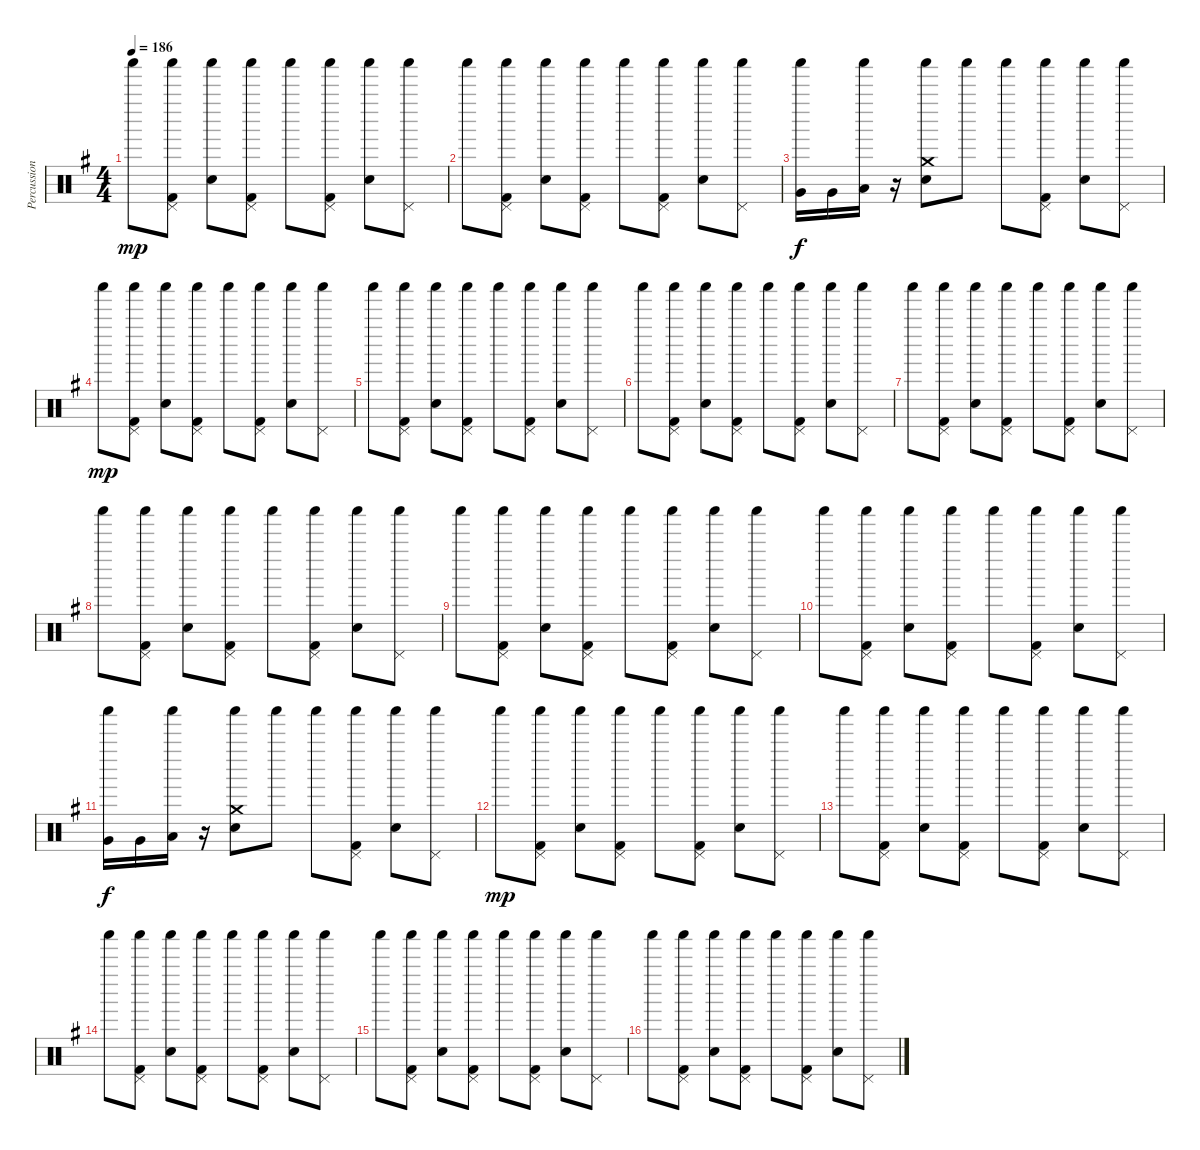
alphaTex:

\track ("Percussion" "Percussion") {instrument percussion}
\staff {score}
\articulation defaults
\ts (4 4)
\tempo 186
\clef neutral
\ks g "Shaker (hit)".8{dy mp}
("Shaker (hit)" "Pedal Hi-Hat (hit)" "Kick (hit) 2").8 ("Shaker (hit)" "Electric Snare (hit)").8 ("Shaker (hit)" "Pedal Hi-Hat (hit)" "Kick (hit) 2").8 "Shaker (hit)".8 ("Shaker (hit)" "Pedal Hi-Hat (hit)" "Kick (hit) 2").8 ("Shaker (hit)" "Electric Snare (hit)").8 ("Shaker (hit)" "Pedal Hi-Hat (hit)").8 |
"Shaker (hit)".8 ("Shaker (hit)" "Pedal Hi-Hat (hit)" "Kick (hit) 2").8 ("Shaker (hit)" "Electric Snare (hit)").8 ("Shaker (hit)" "Pedal Hi-Hat (hit)" "Kick (hit) 2").8 "Shaker (hit)".8 ("Shaker (hit)" "Pedal Hi-Hat (hit)" "Kick (hit) 2").8 ("Shaker (hit)" "Electric Snare (hit)").8 ("Shaker (hit)" "Pedal Hi-Hat (hit)").8 |
("Shaker (hit)" "Very Low Tom (hit)").16{dy f} "Very Low Tom (hit)".16 ("Shaker (hit)" "Low Floor Tom (hit)").16 r.16 ("Shaker (hit)" "Crash medium (hit)" "Electric Snare (hit)").8 "Shaker (hit)".8 "Shaker (hit)".8 ("Shaker (hit)" "Pedal Hi-Hat (hit)" "Kick (hit) 2").8 ("Shaker (hit)" "Electric Snare (hit)").8 ("Shaker (hit)" "Pedal Hi-Hat (hit)").8 |
"Shaker (hit)".8{dy mp} ("Shaker (hit)" "Pedal Hi-Hat (hit)" "Kick (hit) 2").8 ("Shaker (hit)" "Electric Snare (hit)").8 ("Shaker (hit)" "Pedal Hi-Hat (hit)" "Kick (hit) 2").8 "Shaker (hit)".8 ("Shaker (hit)" "Pedal Hi-Hat (hit)" "Kick (hit) 2").8 ("Shaker (hit)" "Electric Snare (hit)").8 ("Shaker (hit)" "Pedal Hi-Hat (hit)").8 |
"Shaker (hit)".8 ("Shaker (hit)" "Pedal Hi-Hat (hit)" "Kick (hit) 2").8 ("Shaker (hit)" "Electric Snare (hit)").8 ("Shaker (hit)" "Pedal Hi-Hat (hit)" "Kick (hit) 2").8 "Shaker (hit)".8 ("Shaker (hit)" "Pedal Hi-Hat (hit)" "Kick (hit) 2").8 ("Shaker (hit)" "Electric Snare (hit)").8 ("Shaker (hit)" "Pedal Hi-Hat (hit)").8 |
"Shaker (hit)".8 ("Shaker (hit)" "Pedal Hi-Hat (hit)" "Kick (hit) 2").8 ("Shaker (hit)" "Electric Snare (hit)").8 ("Shaker (hit)" "Pedal Hi-Hat (hit)" "Kick (hit) 2").8 "Shaker (hit)".8 ("Shaker (hit)" "Pedal Hi-Hat (hit)" "Kick (hit) 2").8 ("Shaker (hit)" "Electric Snare (hit)").8 ("Shaker (hit)" "Pedal Hi-Hat (hit)").8 |
"Shaker (hit)".8 ("Shaker (hit)" "Pedal Hi-Hat (hit)" "Kick (hit) 2").8 ("Shaker (hit)" "Electric Snare (hit)").8 ("Shaker (hit)" "Pedal Hi-Hat (hit)" "Kick (hit) 2").8 "Shaker (hit)".8 ("Shaker (hit)" "Pedal Hi-Hat (hit)" "Kick (hit) 2").8 ("Shaker (hit)" "Electric Snare (hit)").8 ("Shaker (hit)" "Pedal Hi-Hat (hit)").8 |
"Shaker (hit)".8 ("Shaker (hit)" "Pedal Hi-Hat (hit)" "Kick (hit) 2").8 ("Shaker (hit)" "Electric Snare (hit)").8 ("Shaker (hit)" "Pedal Hi-Hat (hit)" "Kick (hit) 2").8 "Shaker (hit)".8 ("Shaker (hit)" "Pedal Hi-Hat (hit)" "Kick (hit) 2").8 ("Shaker (hit)" "Electric Snare (hit)").8 ("Shaker (hit)" "Pedal Hi-Hat (hit)").8 |
"Shaker (hit)".8 ("Shaker (hit)" "Pedal Hi-Hat (hit)" "Kick (hit) 2").8 ("Shaker (hit)" "Electric Snare (hit)").8 ("Shaker (hit)" "Pedal Hi-Hat (hit)" "Kick (hit) 2").8 "Shaker (hit)".8 ("Shaker (hit)" "Pedal Hi-Hat (hit)" "Kick (hit) 2").8 ("Shaker (hit)" "Electric Snare (hit)").8 ("Shaker (hit)" "Pedal Hi-Hat (hit)").8 |
"Shaker (hit)".8 ("Shaker (hit)" "Pedal Hi-Hat (hit)" "Kick (hit) 2").8 ("Shaker (hit)" "Electric Snare (hit)").8 ("Shaker (hit)" "Pedal Hi-Hat (hit)" "Kick (hit) 2").8 "Shaker (hit)".8 ("Shaker (hit)" "Pedal Hi-Hat (hit)" "Kick (hit) 2").8 ("Shaker (hit)" "Electric Snare (hit)").8 ("Shaker (hit)" "Pedal Hi-Hat (hit)").8 |
("Shaker (hit)" "Very Low Tom (hit)").16{dy f} "Very Low Tom (hit)".16 ("Shaker (hit)" "Low Floor Tom (hit)").16 r.16 ("Shaker (hit)" "Crash medium (hit)" "Electric Snare (hit)").8 "Shaker (hit)".8 "Shaker (hit)".8 ("Shaker (hit)" "Pedal Hi-Hat (hit)" "Kick (hit) 2").8 ("Shaker (hit)" "Electric Snare (hit)").8 ("Shaker (hit)" "Pedal Hi-Hat (hit)").8 |
"Shaker (hit)".8{dy mp} ("Shaker (hit)" "Pedal Hi-Hat (hit)" "Kick (hit) 2").8 ("Shaker (hit)" "Electric Snare (hit)").8 ("Shaker (hit)" "Pedal Hi-Hat (hit)" "Kick (hit) 2").8 "Shaker (hit)".8 ("Shaker (hit)" "Pedal Hi-Hat (hit)" "Kick (hit) 2").8 ("Shaker (hit)" "Electric Snare (hit)").8 ("Shaker (hit)" "Pedal Hi-Hat (hit)").8 |
"Shaker (hit)".8 ("Shaker (hit)" "Pedal Hi-Hat (hit)" "Kick (hit) 2").8 ("Shaker (hit)" "Electric Snare (hit)").8 ("Shaker (hit)" "Pedal Hi-Hat (hit)" "Kick (hit) 2").8 "Shaker (hit)".8 ("Shaker (hit)" "Pedal Hi-Hat (hit)" "Kick (hit) 2").8 ("Shaker (hit)" "Electric Snare (hit)").8 ("Shaker (hit)" "Pedal Hi-Hat (hit)").8 |
"Shaker (hit)".8 ("Shaker (hit)" "Pedal Hi-Hat (hit)" "Kick (hit) 2").8 ("Shaker (hit)" "Electric Snare (hit)").8 ("Shaker (hit)" "Pedal Hi-Hat (hit)" "Kick (hit) 2").8 "Shaker (hit)".8 ("Shaker (hit)" "Pedal Hi-Hat (hit)" "Kick (hit) 2").8 ("Shaker (hit)" "Electric Snare (hit)").8 ("Shaker (hit)" "Pedal Hi-Hat (hit)").8 |
"Shaker (hit)".8 ("Shaker (hit)" "Pedal Hi-Hat (hit)" "Kick (hit) 2").8 ("Shaker (hit)" "Electric Snare (hit)").8 ("Shaker (hit)" "Pedal Hi-Hat (hit)" "Kick (hit) 2").8 "Shaker (hit)".8 ("Shaker (hit)" "Pedal Hi-Hat (hit)" "Kick (hit) 2").8 ("Shaker (hit)" "Electric Snare (hit)").8 ("Shaker (hit)" "Pedal Hi-Hat (hit)").8 |
"Shaker (hit)".8 ("Shaker (hit)" "Pedal Hi-Hat (hit)" "Kick (hit) 2").8 ("Shaker (hit)" "Electric Snare (hit)").8 ("Shaker (hit)" "Pedal Hi-Hat (hit)" "Kick (hit) 2").8 "Shaker (hit)".8 ("Shaker (hit)" "Pedal Hi-Hat (hit)" "Kick (hit) 2").8 ("Shaker (hit)" "Electric Snare (hit)").8 ("Shaker (hit)" "Pedal Hi-Hat (hit)").8
